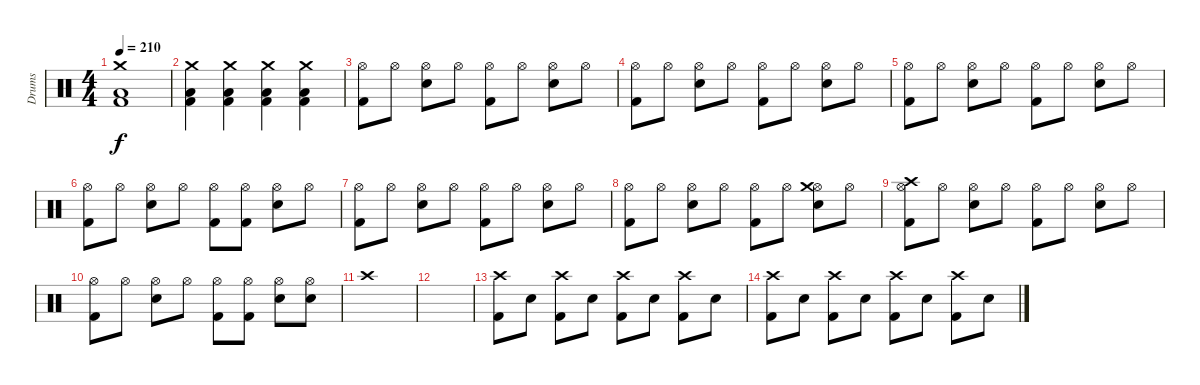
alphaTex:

\track ("Drums" "Drums") {instrument percussion}
\staff {score}
\articulation defaults
\ts (4 4)
\tempo 210
\clef neutral
\ks c
("Crash medium (hit)" "Low Floor Tom (hit)" "Kick (hit) 2").1{dy f} |
("Crash medium (hit)" "Low Floor Tom (hit)" "Kick (hit) 2").4 ("Crash medium (hit)" "Low Floor Tom (hit)" "Kick (hit) 2").4 ("Crash medium (hit)" "Low Floor Tom (hit)" "Kick (hit) 2").4 ("Crash medium (hit)" "Low Floor Tom (hit)" "Kick (hit) 2").4 |
("Hi-Hat (open)" "Kick (hit) 2").8 "Hi-Hat (open)".8 ("Hi-Hat (open)" "Electric Snare (hit)").8 "Hi-Hat (open)".8 ("Hi-Hat (open)" "Kick (hit) 2").8 "Hi-Hat (open)".8 ("Hi-Hat (open)" "Electric Snare (hit)").8 "Hi-Hat (open)".8 |
("Hi-Hat (open)" "Kick (hit) 2").8 "Hi-Hat (open)".8 ("Hi-Hat (open)" "Electric Snare (hit)").8 "Hi-Hat (open)".8 ("Hi-Hat (open)" "Kick (hit) 2").8 "Hi-Hat (open)".8 ("Hi-Hat (open)" "Electric Snare (hit)").8 "Hi-Hat (open)".8 |
("Hi-Hat (open)" "Kick (hit) 2").8 "Hi-Hat (open)".8 ("Hi-Hat (open)" "Electric Snare (hit)").8 "Hi-Hat (open)".8 ("Hi-Hat (open)" "Kick (hit) 2").8 "Hi-Hat (open)".8 ("Hi-Hat (open)" "Electric Snare (hit)").8 "Hi-Hat (open)".8 |
("Hi-Hat (open)" "Kick (hit) 2").8 "Hi-Hat (open)".8 ("Hi-Hat (open)" "Electric Snare (hit)").8 "Hi-Hat (open)".8 ("Hi-Hat (open)" "Kick (hit) 2").8 ("Hi-Hat (open)" "Kick (hit) 2").8 ("Hi-Hat (open)" "Electric Snare (hit)").8 "Hi-Hat (open)".8 |
("Hi-Hat (open)" "Kick (hit) 2").8 "Hi-Hat (open)".8 ("Hi-Hat (open)" "Electric Snare (hit)").8 "Hi-Hat (open)".8 ("Hi-Hat (open)" "Kick (hit) 2").8 "Hi-Hat (open)".8 ("Hi-Hat (open)" "Electric Snare (hit)").8 "Hi-Hat (open)".8 |
("Hi-Hat (open)" "Kick (hit) 2").8 "Hi-Hat (open)".8 ("Hi-Hat (open)" "Electric Snare (hit)").8 "Hi-Hat (open)".8 ("Hi-Hat (open)" "Kick (hit) 2").8 "Hi-Hat (open)".8 ("Hi-Hat (open)" "Crash medium (hit)" "Electric Snare (hit)").8 "Hi-Hat (open)".8 |
("Hi-Hat (open)" "Crash high (hit)" "Kick (hit) 2").8 "Hi-Hat (open)".8 ("Hi-Hat (open)" "Electric Snare (hit)").8 "Hi-Hat (open)".8 ("Hi-Hat (open)" "Kick (hit) 2").8 "Hi-Hat (open)".8 ("Hi-Hat (open)" "Electric Snare (hit)").8 "Hi-Hat (open)".8 |
("Hi-Hat (open)" "Kick (hit) 2").8 "Hi-Hat (open)".8 ("Hi-Hat (open)" "Electric Snare (hit)").8 "Hi-Hat (open)".8 ("Hi-Hat (open)" "Kick (hit) 2").8 ("Hi-Hat (open)" "Kick (hit) 2").8 ("Hi-Hat (open)" "Electric Snare (hit)").8 ("Hi-Hat (open)" "Electric Snare (hit)").8 |
"Crash high (hit)".1 |
|
("Crash high (hit)" "Kick (hit) 2").8 "Electric Snare (hit)".8 ("Crash high (hit)" "Kick (hit) 2").8 "Electric Snare (hit)".8 ("Crash high (hit)" "Kick (hit) 2").8 "Electric Snare (hit)".8 ("Crash high (hit)" "Kick (hit) 2").8 "Electric Snare (hit)".8 |
("Crash high (hit)" "Kick (hit) 2").8 "Electric Snare (hit)".8 ("Crash high (hit)" "Kick (hit) 2").8 "Electric Snare (hit)".8 ("Crash high (hit)" "Kick (hit) 2").8 "Electric Snare (hit)".8 ("Crash high (hit)" "Kick (hit) 2").8 "Electric Snare (hit)".8
